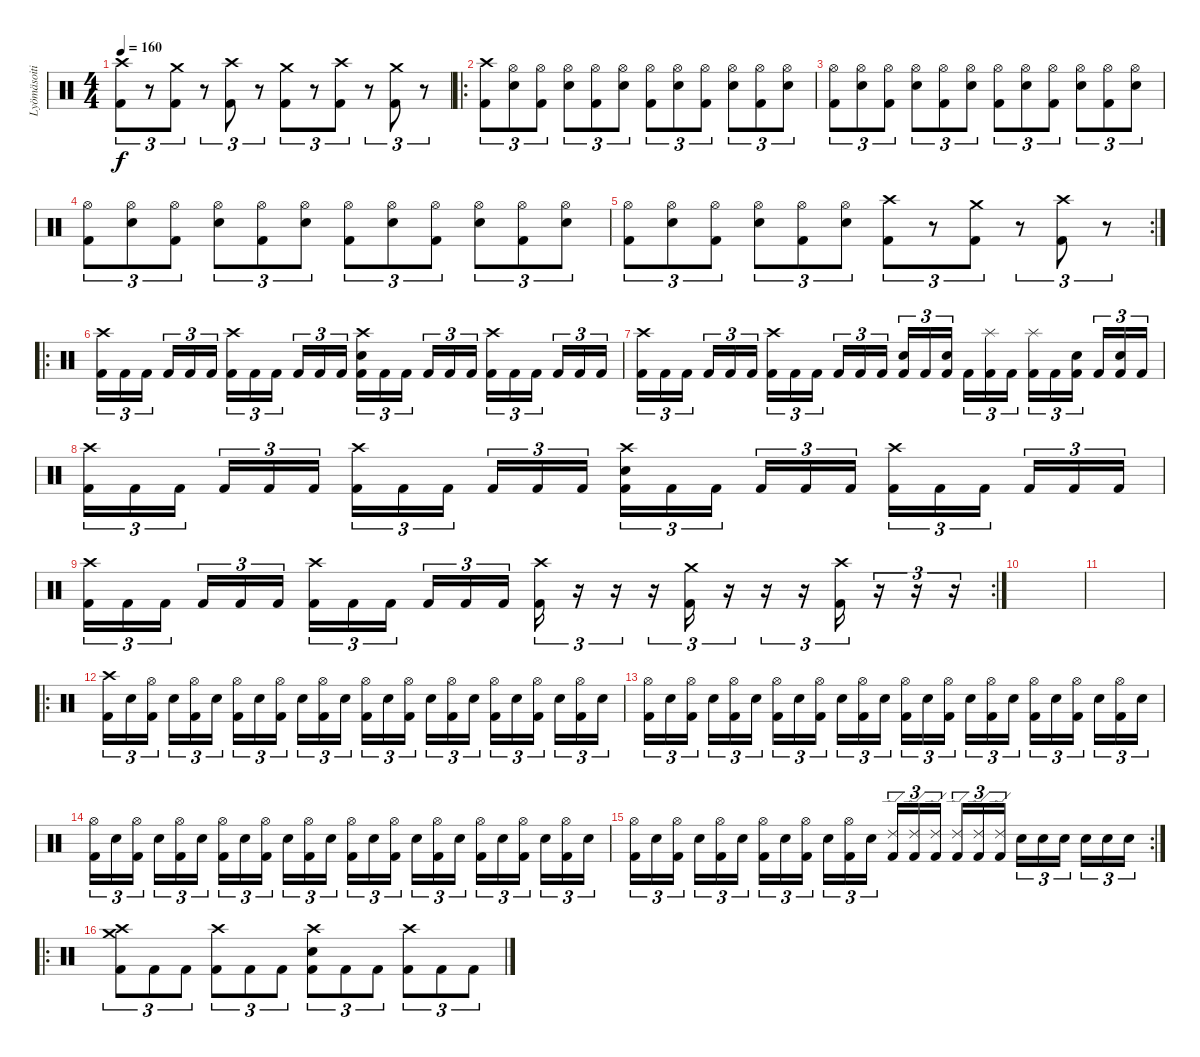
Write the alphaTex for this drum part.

\track ("Lyömäsoitin" "Lyömäsoiti") {instrument percussion}
\staff {score}
\articulation defaults
\ts (4 4)
\tempo 160
\clef neutral
\ks c
("Crash high (hit)" "Kick (hit) 2").8{tu (3 2) dy f} r.8{tu (3 2)} ("Crash medium (hit)" "Kick (hit) 2").8{tu (3 2)} r.8{tu (3 2)} ("Crash high (hit)" "Kick (hit) 2").8{tu (3 2)} r.8{tu (3 2)} ("Crash medium (hit)" "Kick (hit) 2").8{tu (3 2)} r.8{tu (3 2)} ("Crash high (hit)" "Kick (hit) 2").8{tu (3 2)} r.8{tu (3 2)} ("Crash medium (hit)" "Kick (hit) 2").8{tu (3 2)} r.8{tu (3 2)} |
\ro
("Crash high (hit)" "Kick (hit) 2").8{tu (3 2)} ("Hi-Hat (open)" "Snare (hit) 2").8{tu (3 2)} ("Hi-Hat (open)" "Kick (hit) 2").8{tu (3 2)} ("Hi-Hat (open)" "Snare (hit) 2").8{tu (3 2)} ("Hi-Hat (open)" "Kick (hit) 2").8{tu (3 2)} ("Hi-Hat (open)" "Snare (hit) 2").8{tu (3 2)} ("Hi-Hat (open)" "Kick (hit) 2").8{tu (3 2)} ("Hi-Hat (open)" "Snare (hit) 2").8{tu (3 2)} ("Hi-Hat (open)" "Kick (hit) 2").8{tu (3 2)} ("Hi-Hat (open)" "Snare (hit) 2").8{tu (3 2)} ("Hi-Hat (open)" "Kick (hit) 2").8{tu (3 2)} ("Hi-Hat (open)" "Snare (hit) 2").8{tu (3 2)} |
("Hi-Hat (open)" "Kick (hit) 2").8{tu (3 2)} ("Hi-Hat (open)" "Snare (hit) 2").8{tu (3 2)} ("Hi-Hat (open)" "Kick (hit) 2").8{tu (3 2)} ("Hi-Hat (open)" "Snare (hit) 2").8{tu (3 2)} ("Hi-Hat (open)" "Kick (hit) 2").8{tu (3 2)} ("Hi-Hat (open)" "Snare (hit) 2").8{tu (3 2)} ("Hi-Hat (open)" "Kick (hit) 2").8{tu (3 2)} ("Hi-Hat (open)" "Snare (hit) 2").8{tu (3 2)} ("Hi-Hat (open)" "Kick (hit) 2").8{tu (3 2)} ("Hi-Hat (open)" "Snare (hit) 2").8{tu (3 2)} ("Hi-Hat (open)" "Kick (hit) 2").8{tu (3 2)} ("Hi-Hat (open)" "Snare (hit) 2").8{tu (3 2)} |
("Hi-Hat (open)" "Kick (hit) 2").8{tu (3 2)} ("Hi-Hat (open)" "Snare (hit) 2").8{tu (3 2)} ("Hi-Hat (open)" "Kick (hit) 2").8{tu (3 2)} ("Hi-Hat (open)" "Snare (hit) 2").8{tu (3 2)} ("Hi-Hat (open)" "Kick (hit) 2").8{tu (3 2)} ("Hi-Hat (open)" "Snare (hit) 2").8{tu (3 2)} ("Hi-Hat (open)" "Kick (hit) 2").8{tu (3 2)} ("Hi-Hat (open)" "Snare (hit) 2").8{tu (3 2)} ("Hi-Hat (open)" "Kick (hit) 2").8{tu (3 2)} ("Hi-Hat (open)" "Snare (hit) 2").8{tu (3 2)} ("Hi-Hat (open)" "Kick (hit) 2").8{tu (3 2)} ("Hi-Hat (open)" "Snare (hit) 2").8{tu (3 2)} |
\rc 2
("Hi-Hat (open)" "Kick (hit) 2").8{tu (3 2)} ("Hi-Hat (open)" "Snare (hit) 2").8{tu (3 2)} ("Hi-Hat (open)" "Kick (hit) 2").8{tu (3 2)} ("Hi-Hat (open)" "Snare (hit) 2").8{tu (3 2)} ("Hi-Hat (open)" "Kick (hit) 2").8{tu (3 2)} ("Hi-Hat (open)" "Snare (hit) 2").8{tu (3 2)} ("Crash high (hit)" "Kick (hit) 2").8{tu (3 2)} r.8{tu (3 2)} ("Crash medium (hit)" "Kick (hit) 2").8{tu (3 2)} r.8{tu (3 2)} ("Crash high (hit)" "Kick (hit) 2").8{tu (3 2)} r.8{tu (3 2)} |
\ro
("Crash high (hit)" "Kick (hit) 2").16{tu (3 2)} "Kick (hit) 2".16{tu (3 2)} "Kick (hit) 2".16{tu (3 2) beam splitsecondary} "Kick (hit) 2".16{tu (3 2)} "Kick (hit) 2".16{tu (3 2)} "Kick (hit) 2".16{tu (3 2)} ("Crash high (hit)" "Kick (hit) 2").16{tu (3 2)} "Kick (hit) 2".16{tu (3 2)} "Kick (hit) 2".16{tu (3 2) beam splitsecondary} "Kick (hit) 2".16{tu (3 2)} "Kick (hit) 2".16{tu (3 2)} "Kick (hit) 2".16{tu (3 2)} ("Crash high (hit)" "Snare (hit) 2" "Kick (hit) 2").16{tu (3 2)} "Kick (hit) 2".16{tu (3 2)} "Kick (hit) 2".16{tu (3 2) beam splitsecondary} "Kick (hit) 2".16{tu (3 2)} "Kick (hit) 2".16{tu (3 2)} "Kick (hit) 2".16{tu (3 2)} ("Crash high (hit)" "Kick (hit) 2").16{tu (3 2)} "Kick (hit) 2".16{tu (3 2)} "Kick (hit) 2".16{tu (3 2) beam splitsecondary} "Kick (hit) 2".16{tu (3 2)} "Kick (hit) 2".16{tu (3 2)} "Kick (hit) 2".16{tu (3 2)} |
("Crash high (hit)" "Kick (hit) 2").16{tu (3 2)} "Kick (hit) 2".16{tu (3 2)} "Kick (hit) 2".16{tu (3 2) beam splitsecondary} "Kick (hit) 2".16{tu (3 2)} "Kick (hit) 2".16{tu (3 2)} "Kick (hit) 2".16{tu (3 2)} ("Crash high (hit)" "Kick (hit) 2").16{tu (3 2)} "Kick (hit) 2".16{tu (3 2)} "Kick (hit) 2".16{tu (3 2) beam splitsecondary} "Kick (hit) 2".16{tu (3 2)} "Kick (hit) 2".16{tu (3 2)} "Kick (hit) 2".16{tu (3 2)} ("Snare (hit) 2" "Kick (hit) 2").16{tu (3 2)} "Kick (hit) 2".16{tu (3 2)} ("Snare (hit) 2" "Kick (hit) 2").16{tu (3 2) beam splitsecondary} "Kick (hit) 2".16{tu (3 2)} ("Splash (hit)" "Kick (hit) 2").16{tu (3 2)} "Kick (hit) 2".16{tu (3 2)} ("Splash (hit)" "Kick (hit) 2").16{tu (3 2)} "Kick (hit) 2".16{tu (3 2)} ("Snare (hit) 2" "Kick (hit) 2").16{tu (3 2) beam splitsecondary} "Kick (hit) 2".16{tu (3 2)} ("Snare (hit) 2" "Kick (hit) 2").16{tu (3 2)} "Kick (hit) 2".16{tu (3 2)} |
("Crash high (hit)" "Kick (hit) 2").16{tu (3 2)} "Kick (hit) 2".16{tu (3 2)} "Kick (hit) 2".16{tu (3 2) beam splitsecondary} "Kick (hit) 2".16{tu (3 2)} "Kick (hit) 2".16{tu (3 2)} "Kick (hit) 2".16{tu (3 2)} ("Crash high (hit)" "Kick (hit) 2").16{tu (3 2)} "Kick (hit) 2".16{tu (3 2)} "Kick (hit) 2".16{tu (3 2) beam splitsecondary} "Kick (hit) 2".16{tu (3 2)} "Kick (hit) 2".16{tu (3 2)} "Kick (hit) 2".16{tu (3 2)} ("Crash high (hit)" "Snare (hit) 2" "Kick (hit) 2").16{tu (3 2)} "Kick (hit) 2".16{tu (3 2)} "Kick (hit) 2".16{tu (3 2) beam splitsecondary} "Kick (hit) 2".16{tu (3 2)} "Kick (hit) 2".16{tu (3 2)} "Kick (hit) 2".16{tu (3 2)} ("Crash high (hit)" "Kick (hit) 2").16{tu (3 2)} "Kick (hit) 2".16{tu (3 2)} "Kick (hit) 2".16{tu (3 2) beam splitsecondary} "Kick (hit) 2".16{tu (3 2)} "Kick (hit) 2".16{tu (3 2)} "Kick (hit) 2".16{tu (3 2)} |
\rc 2
("Crash high (hit)" "Kick (hit) 2").16{tu (3 2)} "Kick (hit) 2".16{tu (3 2)} "Kick (hit) 2".16{tu (3 2) beam splitsecondary} "Kick (hit) 2".16{tu (3 2)} "Kick (hit) 2".16{tu (3 2)} "Kick (hit) 2".16{tu (3 2)} ("Crash high (hit)" "Kick (hit) 2").16{tu (3 2)} "Kick (hit) 2".16{tu (3 2)} "Kick (hit) 2".16{tu (3 2) beam splitsecondary} "Kick (hit) 2".16{tu (3 2)} "Kick (hit) 2".16{tu (3 2)} "Kick (hit) 2".16{tu (3 2)} ("Crash high (hit)" "Kick (hit) 2").16{tu (3 2)} r.16{tu (3 2)} r.16{tu (3 2)} r.16{tu (3 2)} ("Crash medium (hit)" "Kick (hit) 2").16{tu (3 2)} r.16{tu (3 2)} r.16{tu (3 2)} r.16{tu (3 2)} ("Crash high (hit)" "Kick (hit) 2").16{tu (3 2)} r.16{tu (3 2)} r.16{tu (3 2)} r.16{tu (3 2)} |
|
|
\ro
("Crash high (hit)" "Kick (hit) 2").16{tu (3 2)} "Snare (hit) 2".16{tu (3 2)} ("Hi-Hat (open)" "Kick (hit) 2").16{tu (3 2) beam splitsecondary} "Snare (hit) 2".16{tu (3 2)} ("Hi-Hat (open)" "Kick (hit) 2").16{tu (3 2)} "Snare (hit) 2".16{tu (3 2)} ("Hi-Hat (open)" "Kick (hit) 2").16{tu (3 2)} "Snare (hit) 2".16{tu (3 2)} ("Hi-Hat (open)" "Kick (hit) 2").16{tu (3 2) beam splitsecondary} "Snare (hit) 2".16{tu (3 2)} ("Hi-Hat (open)" "Kick (hit) 2").16{tu (3 2)} "Snare (hit) 2".16{tu (3 2)} ("Hi-Hat (open)" "Kick (hit) 2").16{tu (3 2)} "Snare (hit) 2".16{tu (3 2)} ("Hi-Hat (open)" "Kick (hit) 2").16{tu (3 2) beam splitsecondary} "Snare (hit) 2".16{tu (3 2)} ("Hi-Hat (open)" "Kick (hit) 2").16{tu (3 2)} "Snare (hit) 2".16{tu (3 2)} ("Hi-Hat (open)" "Kick (hit) 2").16{tu (3 2)} "Snare (hit) 2".16{tu (3 2)} ("Hi-Hat (open)" "Kick (hit) 2").16{tu (3 2) beam splitsecondary} "Snare (hit) 2".16{tu (3 2)} ("Hi-Hat (open)" "Kick (hit) 2").16{tu (3 2)} "Snare (hit) 2".16{tu (3 2)} |
("Hi-Hat (open)" "Kick (hit) 2").16{tu (3 2)} "Snare (hit) 2".16{tu (3 2)} ("Hi-Hat (open)" "Kick (hit) 2").16{tu (3 2) beam splitsecondary} "Snare (hit) 2".16{tu (3 2)} ("Hi-Hat (open)" "Kick (hit) 2").16{tu (3 2)} "Snare (hit) 2".16{tu (3 2)} ("Hi-Hat (open)" "Kick (hit) 2").16{tu (3 2)} "Snare (hit) 2".16{tu (3 2)} ("Hi-Hat (open)" "Kick (hit) 2").16{tu (3 2) beam splitsecondary} "Snare (hit) 2".16{tu (3 2)} ("Hi-Hat (open)" "Kick (hit) 2").16{tu (3 2)} "Snare (hit) 2".16{tu (3 2)} ("Hi-Hat (open)" "Kick (hit) 2").16{tu (3 2)} "Snare (hit) 2".16{tu (3 2)} ("Hi-Hat (open)" "Kick (hit) 2").16{tu (3 2) beam splitsecondary} "Snare (hit) 2".16{tu (3 2)} ("Hi-Hat (open)" "Kick (hit) 2").16{tu (3 2)} "Snare (hit) 2".16{tu (3 2)} ("Hi-Hat (open)" "Kick (hit) 2").16{tu (3 2)} "Snare (hit) 2".16{tu (3 2)} ("Hi-Hat (open)" "Kick (hit) 2").16{tu (3 2) beam splitsecondary} "Snare (hit) 2".16{tu (3 2)} ("Hi-Hat (open)" "Kick (hit) 2").16{tu (3 2)} "Snare (hit) 2".16{tu (3 2)} |
("Hi-Hat (open)" "Kick (hit) 2").16{tu (3 2)} "Snare (hit) 2".16{tu (3 2)} ("Hi-Hat (open)" "Kick (hit) 2").16{tu (3 2) beam splitsecondary} "Snare (hit) 2".16{tu (3 2)} ("Hi-Hat (open)" "Kick (hit) 2").16{tu (3 2)} "Snare (hit) 2".16{tu (3 2)} ("Hi-Hat (open)" "Kick (hit) 2").16{tu (3 2)} "Snare (hit) 2".16{tu (3 2)} ("Hi-Hat (open)" "Kick (hit) 2").16{tu (3 2) beam splitsecondary} "Snare (hit) 2".16{tu (3 2)} ("Hi-Hat (open)" "Kick (hit) 2").16{tu (3 2)} "Snare (hit) 2".16{tu (3 2)} ("Hi-Hat (open)" "Kick (hit) 2").16{tu (3 2)} "Snare (hit) 2".16{tu (3 2)} ("Hi-Hat (open)" "Kick (hit) 2").16{tu (3 2) beam splitsecondary} "Snare (hit) 2".16{tu (3 2)} ("Hi-Hat (open)" "Kick (hit) 2").16{tu (3 2)} "Snare (hit) 2".16{tu (3 2)} ("Hi-Hat (open)" "Kick (hit) 2").16{tu (3 2)} "Snare (hit) 2".16{tu (3 2)} ("Hi-Hat (open)" "Kick (hit) 2").16{tu (3 2) beam splitsecondary} "Snare (hit) 2".16{tu (3 2)} ("Hi-Hat (open)" "Kick (hit) 2").16{tu (3 2)} "Snare (hit) 2".16{tu (3 2)} |
\rc 2
("Hi-Hat (open)" "Kick (hit) 2").16{tu (3 2)} "Snare (hit) 2".16{tu (3 2)} ("Hi-Hat (open)" "Kick (hit) 2").16{tu (3 2) beam splitsecondary} "Snare (hit) 2".16{tu (3 2)} ("Hi-Hat (open)" "Kick (hit) 2").16{tu (3 2)} "Snare (hit) 2".16{tu (3 2)} ("Hi-Hat (open)" "Kick (hit) 2").16{tu (3 2)} "Snare (hit) 2".16{tu (3 2)} ("Hi-Hat (open)" "Kick (hit) 2").16{tu (3 2) beam splitsecondary} "Snare (hit) 2".16{tu (3 2)} ("Hi-Hat (open)" "Kick (hit) 2").16{tu (3 2)} "Snare (hit) 2".16{tu (3 2)} ("Ride (edge) 2" "Kick (hit) 2").16{tu (3 2)} ("Ride (edge) 2" "Kick (hit) 2").16{tu (3 2)} ("Ride (edge) 2" "Kick (hit) 2").16{tu (3 2) beam splitsecondary} ("Ride (edge) 2" "Kick (hit) 2").16{tu (3 2)} ("Ride (edge) 2" "Kick (hit) 2").16{tu (3 2)} ("Ride (edge) 2" "Kick (hit) 2").16{tu (3 2)} "Snare (hit) 2".16{tu (3 2)} "Snare (hit) 2".16{tu (3 2)} "Snare (hit) 2".16{tu (3 2) beam splitsecondary} "Snare (hit) 2".16{tu (3 2)} "Snare (hit) 2".16{tu (3 2)} "Snare (hit) 2".16{tu (3 2)} |
\ro
("Crash medium (hit)" "Crash high (hit)" "Kick (hit) 2").8{tu (3 2)} "Kick (hit) 2".8{tu (3 2)} "Kick (hit) 2".8{tu (3 2)} ("Crash high (hit)" "Kick (hit) 2").8{tu (3 2)} "Kick (hit) 2".8{tu (3 2)} "Kick (hit) 2".8{tu (3 2)} ("Crash high (hit)" "Snare (hit) 2" "Kick (hit) 2").8{tu (3 2)} "Kick (hit) 2".8{tu (3 2)} "Kick (hit) 2".8{tu (3 2)} ("Crash high (hit)" "Kick (hit) 2").8{tu (3 2)} "Kick (hit) 2".8{tu (3 2)} "Kick (hit) 2".8{tu (3 2)}
